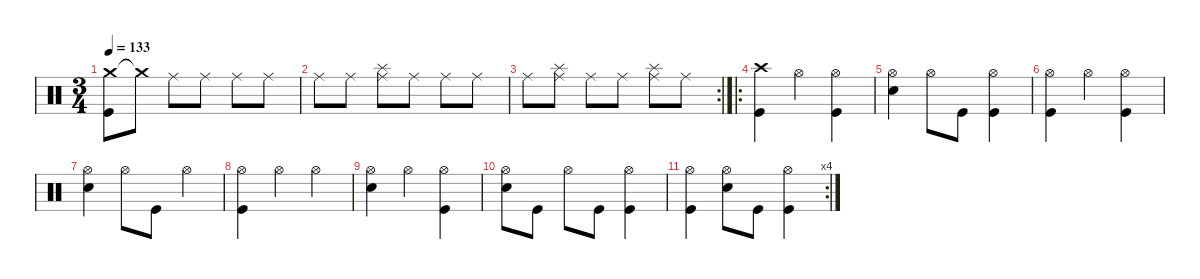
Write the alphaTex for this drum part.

\defaultSystemsLayout 4
\hideDynamics
\bracketExtendMode nobrackets
\singleTrackTrackNamePolicy hidden
\multiTrackTrackNamePolicy hidden
\firstSystemTrackNameMode fullname
\firstSystemTrackNameOrientation horizontal
\otherSystemsTrackNameOrientation horizontal
\track ("Drums" "drm.") {instrument percussion}
\staff {score}
\articulation defaults
\ts (3 4)
\tempo 133
\clef neutral
\ks aminor
("Crash medium (hit)" "Kick (hit)").8{dy mp beam Down} "Crash medium (hit)"{t}.8{dy f beam Down} "Ride (middle)".8{beam Down} "Ride (middle)".8{dy pp beam Down} "Ride (middle)".8{dy p beam Down} "Ride (middle)".8{dy f beam Down} |
"Ride (middle)".8{dy p beam Down} "Ride (middle)".8{dy pp beam Down} ("Ride (middle)" "Splash (hit)").8{dy f beam Down} "Ride (middle)".8{dy p beam Down} "Ride (middle)".8{dy mp beam Down} "Ride (middle)".8{dy mf beam Down} |
\rc 2 "Ride (middle)".8{dy mp beam Down}
("Ride (middle)" "Splash (hit)").8{dy f beam Down} "Ride (middle)".8{dy mp beam Down} "Ride (middle)".8{dy p beam Down} ("Ride (middle)" "Splash (hit)").8{dy f beam Down} "Ride (middle)".8{beam Down} |
\ro
("Crash high (hit)" "Kick (hit)").4{beam Down} "Hi-Hat (open)".4{beam Down} ("Hi-Hat (open)" "Kick (hit)").4{beam Down} |
("Hi-Hat (open)" "Snare (hit) 2").4{beam Down} "Hi-Hat (open)".8{beam Down} "Kick (hit)".8{beam Down} ("Hi-Hat (open)" "Kick (hit)").4{beam Down} |
("Hi-Hat (open)" "Kick (hit)").4{beam Down} "Hi-Hat (open)".4{beam Down} ("Hi-Hat (open)" "Kick (hit)").4{beam Down} |
("Hi-Hat (open)" "Snare (hit) 2").4{beam Down} "Hi-Hat (open)".8{beam Down} "Kick (hit)".8{beam Down} "Hi-Hat (open)".4{beam Down} |
("Hi-Hat (open)" "Kick (hit)").4{beam Down} "Hi-Hat (open)".4{beam Down} "Hi-Hat (open)".4{beam Down} |
("Hi-Hat (open)" "Snare (hit) 2").4{beam Down} "Hi-Hat (open)".4{beam Down} ("Hi-Hat (open)" "Kick (hit)").4{beam Down} |
("Hi-Hat (open)" "Snare (hit) 2").8{beam Down} "Kick (hit)".8{beam Down} "Hi-Hat (open)".8{beam Down} "Kick (hit)".8{beam Down} ("Hi-Hat (open)" "Kick (hit)").4{beam Down} |
\rc 4
("Hi-Hat (open)" "Kick (hit)").4{beam Down} ("Hi-Hat (open)" "Snare (hit) 2").8{beam Down} "Kick (hit)".8{beam Down} ("Hi-Hat (open)" "Kick (hit)").4{beam Down}
